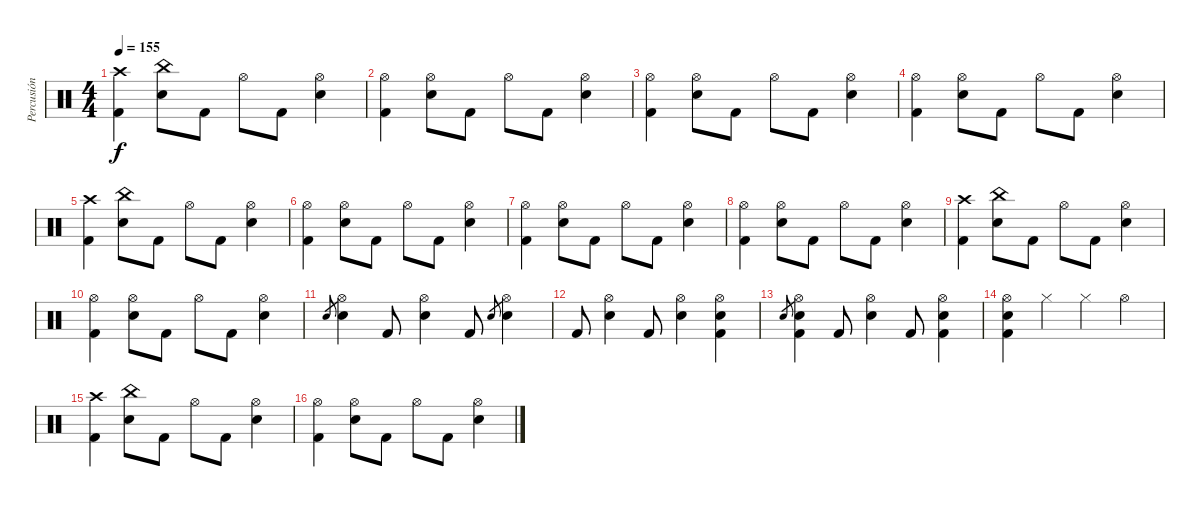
\track ("Percusión" "Percusión") {instrument percussion}
\staff {score}
\articulation defaults
\ts (4 4)
\tempo 155
\clef neutral
\ks c
("Crash high (hit)" "Kick (hit) 2").4{dy f} ("China (hit)" "Electric Snare (hit)").8 "Kick (hit) 2".8 "Hi-Hat (open)".8 "Kick (hit) 2".8 ("Hi-Hat (open)" "Electric Snare (hit)").4 |
("Hi-Hat (open)" "Kick (hit) 2").4 ("Hi-Hat (open)" "Electric Snare (hit)").8 "Kick (hit) 2".8 "Hi-Hat (open)".8 "Kick (hit) 2".8 ("Hi-Hat (open)" "Electric Snare (hit)").4 |
("Hi-Hat (open)" "Kick (hit) 2").4 ("Hi-Hat (open)" "Electric Snare (hit)").8 "Kick (hit) 2".8 "Hi-Hat (open)".8 "Kick (hit) 2".8 ("Hi-Hat (open)" "Electric Snare (hit)").4 |
("Hi-Hat (open)" "Kick (hit) 2").4 ("Hi-Hat (open)" "Electric Snare (hit)").8 "Kick (hit) 2".8 "Hi-Hat (open)".8 "Kick (hit) 2".8 ("Hi-Hat (open)" "Electric Snare (hit)").4 |
("Crash high (hit)" "Kick (hit) 2").4 ("China (hit)" "Electric Snare (hit)").8 "Kick (hit) 2".8 "Hi-Hat (open)".8 "Kick (hit) 2".8 ("Hi-Hat (open)" "Electric Snare (hit)").4 |
("Hi-Hat (open)" "Kick (hit) 2").4 ("Hi-Hat (open)" "Electric Snare (hit)").8 "Kick (hit) 2".8 "Hi-Hat (open)".8 "Kick (hit) 2".8 ("Hi-Hat (open)" "Electric Snare (hit)").4 |
("Hi-Hat (open)" "Kick (hit) 2").4 ("Hi-Hat (open)" "Electric Snare (hit)").8 "Kick (hit) 2".8 "Hi-Hat (open)".8 "Kick (hit) 2".8 ("Hi-Hat (open)" "Electric Snare (hit)").4 |
("Hi-Hat (open)" "Kick (hit) 2").4 ("Hi-Hat (open)" "Electric Snare (hit)").8 "Kick (hit) 2".8 "Hi-Hat (open)".8 "Kick (hit) 2".8 ("Hi-Hat (open)" "Electric Snare (hit)").4 |
("Crash high (hit)" "Kick (hit) 2").4 ("China (hit)" "Electric Snare (hit)").8 "Kick (hit) 2".8 "Hi-Hat (open)".8 "Kick (hit) 2".8 ("Hi-Hat (open)" "Electric Snare (hit)").4 |
("Hi-Hat (open)" "Kick (hit) 2").4 ("Hi-Hat (open)" "Electric Snare (hit)").8 "Kick (hit) 2".8 "Hi-Hat (open)".8 "Kick (hit) 2".8 ("Hi-Hat (open)" "Electric Snare (hit)").4 |
"Electric Snare (hit)".8{gr} ("Hi-Hat (open)" "Electric Snare (hit)").4 "Kick (hit) 2".8 ("Hi-Hat (open)" "Electric Snare (hit)").4 "Kick (hit) 2".8 "Electric Snare (hit)".8{gr} ("Hi-Hat (open)" "Electric Snare (hit)").4 |
"Kick (hit) 2".8 ("Hi-Hat (open)" "Electric Snare (hit)").4 "Kick (hit) 2".8 ("Hi-Hat (open)" "Electric Snare (hit)").4 ("Hi-Hat (open)" "Electric Snare (hit)" "Kick (hit) 2").4 |
"Electric Snare (hit)".8{gr} ("Hi-Hat (open)" "Electric Snare (hit)" "Kick (hit) 2").4 "Kick (hit) 2".8 ("Hi-Hat (open)" "Electric Snare (hit)").4 "Kick (hit) 2".8 ("Hi-Hat (open)" "Electric Snare (hit)" "Kick (hit) 2").4 |
("Hi-Hat (open)" "Electric Snare (hit)" "Kick (hit) 2").4 "Hi-Hat (closed)".4 "Hi-Hat (closed)".4 "Hi-Hat (open)".4 |
("Crash high (hit)" "Kick (hit) 2").4 ("China (hit)" "Electric Snare (hit)").8 "Kick (hit) 2".8 "Hi-Hat (open)".8 "Kick (hit) 2".8 ("Hi-Hat (open)" "Electric Snare (hit)").4 |
("Hi-Hat (open)" "Kick (hit) 2").4 ("Hi-Hat (open)" "Electric Snare (hit)").8 "Kick (hit) 2".8 "Hi-Hat (open)".8 "Kick (hit) 2".8 ("Hi-Hat (open)" "Electric Snare (hit)").4
